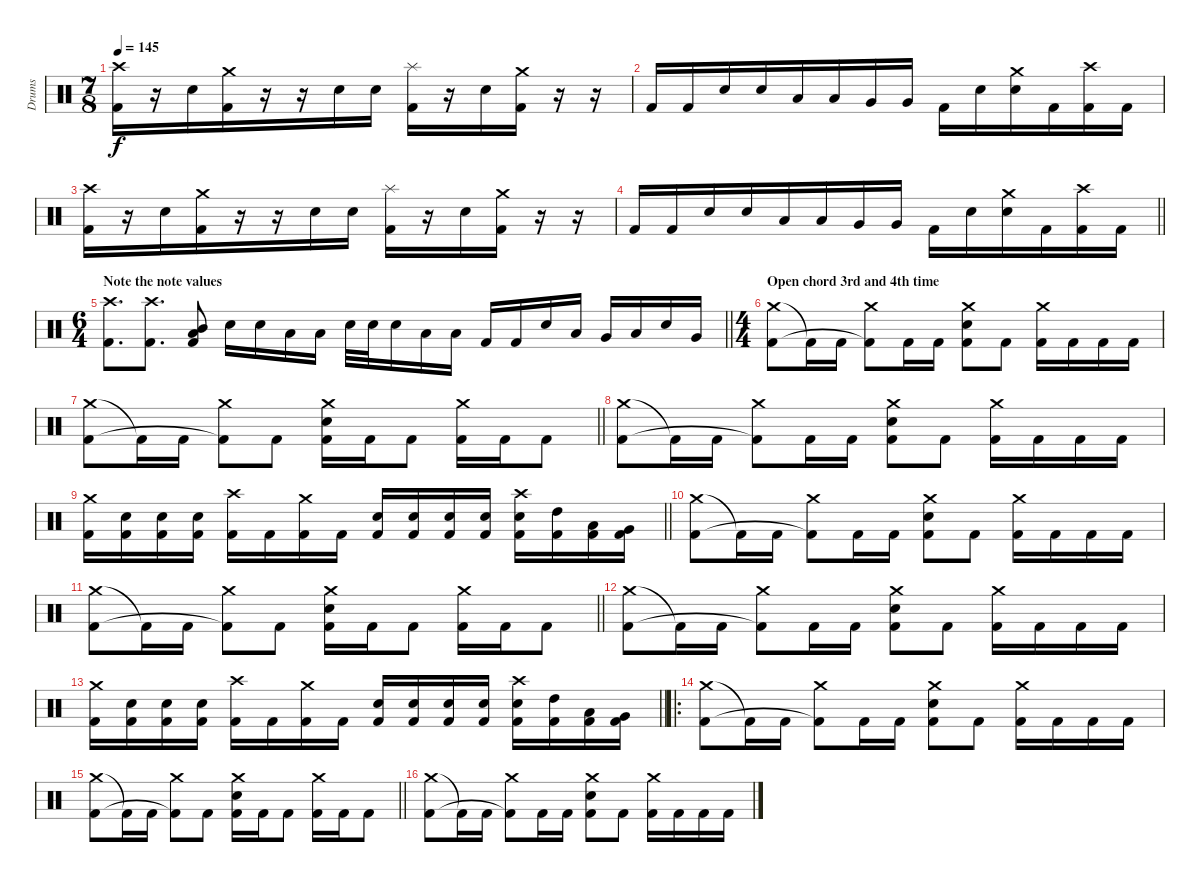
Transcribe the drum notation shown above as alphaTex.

\track ("Drums" "Drums") {mute instrument percussion}
\staff {score}
\articulation defaults
\ts (7 8)
\tempo 145
\clef neutral
\ks c
("Crash high (hit)" "Kick (hit) 2").16{dy f} r.16 "Electric Snare (hit)".16 ("Crash medium (hit)" "Kick (hit) 2").16 r.16 r.16 "Electric Snare (hit)".16 "Electric Snare (hit)".16 ("Splash (hit)" "Kick (hit) 2").16 r.16 "Electric Snare (hit)".16 ("Crash medium (hit)" "Kick (hit) 2").16 r.16 r.16 |
"Kick (hit) 2".16 "Kick (hit) 2".16 "Electric Snare (hit)".16 "Electric Snare (hit)".16 "Low Tom (hit)".16 "Low Tom (hit)".16 "Very Low Tom (hit)".16 "Very Low Tom (hit)".16 "Kick (hit) 2".16 "Electric Snare (hit)".16 ("Crash medium (hit)" "Electric Snare (hit)").16 "Kick (hit) 2".16 ("Crash high (hit)" "Kick (hit) 2").16 "Kick (hit) 2".16 |
("Crash high (hit)" "Kick (hit) 2").16 r.16 "Electric Snare (hit)".16 ("Crash medium (hit)" "Kick (hit) 2").16 r.16 r.16 "Electric Snare (hit)".16 "Electric Snare (hit)".16 ("Splash (hit)" "Kick (hit) 2").16 r.16 "Electric Snare (hit)".16 ("Crash medium (hit)" "Kick (hit) 2").16 r.16 r.16 |
\barLineRight lightlight "Kick (hit) 2".16 "Kick (hit) 2".16 "Electric Snare (hit)".16 "Electric Snare (hit)".16 "Low Tom (hit)".16 "Low Tom (hit)".16 "Very Low Tom (hit)".16 "Very Low Tom (hit)".16 "Kick (hit) 2".16 "Electric Snare (hit)".16
("Crash medium (hit)" "Electric Snare (hit)").16 "Kick (hit) 2".16 ("Crash high (hit)" "Kick (hit) 2").16 "Kick (hit) 2".16 |
\ts (6 4)
\section ("" "Note the note values")
\barLineRight lightlight
("Crash high (hit)" "Kick (hit) 2").8{d} ("Crash high (hit)" "Kick (hit) 2").8{d} ("Mid Tom (hit)" "Low Tom (hit)" "Kick (hit) 2").8 "Electric Snare (hit)".16 "Electric Snare (hit)".16 "Low Tom (hit)".16 "Low Tom (hit)".16 "Electric Snare (hit)".32 "Electric Snare (hit)".32 "Electric Snare (hit)".16 "Low Tom (hit)".16 "Low Tom (hit)".16 "Kick (hit) 2".16 "Kick (hit) 2".16 "Electric Snare (hit)".16 "Low Tom (hit)".16 "Very Low Tom (hit)".16 "Low Tom (hit)".16 "Electric Snare (hit)".16 "Very Low Tom (hit)".16 |
\ts (4 4)
\section ("" "Open chord 3rd and 4th time")
("Crash medium (hit)" "Kick (hit) 2").8 "Kick (hit) 2"{t}.16 "Kick (hit) 2".16 ("Crash medium (hit)" "Kick (hit) 2"{t}).8 "Kick (hit) 2".16 "Kick (hit) 2".16 ("Crash medium (hit)" "Electric Snare (hit)" "Kick (hit) 2").8 "Kick (hit) 2".8 ("Crash medium (hit)" "Kick (hit) 2").16 "Kick (hit) 2".16 "Kick (hit) 2".16 "Kick (hit) 2".16 |
\barLineRight lightlight
("Crash medium (hit)" "Kick (hit) 2").8 "Kick (hit) 2"{t}.16 "Kick (hit) 2".16 ("Crash medium (hit)" "Kick (hit) 2"{t}).8 "Kick (hit) 2".8 ("Crash medium (hit)" "Electric Snare (hit)" "Kick (hit) 2").16 "Kick (hit) 2".16 "Kick (hit) 2".8 ("Crash medium (hit)" "Kick (hit) 2").16 "Kick (hit) 2".16 "Kick (hit) 2".8 |
("Crash medium (hit)" "Kick (hit) 2").8 "Kick (hit) 2"{t}.16 "Kick (hit) 2".16 ("Crash medium (hit)" "Kick (hit) 2"{t}).8 "Kick (hit) 2".16 "Kick (hit) 2".16 ("Crash medium (hit)" "Electric Snare (hit)" "Kick (hit) 2").8 "Kick (hit) 2".8 ("Crash medium (hit)" "Kick (hit) 2").16 "Kick (hit) 2".16 "Kick (hit) 2".16 "Kick (hit) 2".16 |
\barLineRight lightlight
("Crash medium (hit)" "Kick (hit) 2").16 ("Electric Snare (hit)" "Kick (hit) 2").16 ("Electric Snare (hit)" "Kick (hit) 2").16 ("Electric Snare (hit)" "Kick (hit) 2").16 ("Crash high (hit)" "Kick (hit) 2").16 "Kick (hit) 2".16 ("Crash medium (hit)" "Kick (hit) 2").16 "Kick (hit) 2".16 ("Electric Snare (hit)" "Kick (hit) 2").16 ("Electric Snare (hit)" "Kick (hit) 2").16 ("Electric Snare (hit)" "Kick (hit) 2").16 ("Electric Snare (hit)" "Kick (hit) 2").16 ("Crash high (hit)" "Electric Snare (hit)" "Kick (hit) 2").16 ("High Tom (hit)" "Kick (hit) 2").16 ("Low Tom (hit)" "Kick (hit) 2").16 ("Very Low Tom (hit)" "Kick (hit) 2").16 |
("Crash medium (hit)" "Kick (hit) 2").8 "Kick (hit) 2"{t}.16 "Kick (hit) 2".16 ("Crash medium (hit)" "Kick (hit) 2"{t}).8 "Kick (hit) 2".16 "Kick (hit) 2".16 ("Crash medium (hit)" "Electric Snare (hit)" "Kick (hit) 2").8 "Kick (hit) 2".8 ("Crash medium (hit)" "Kick (hit) 2").16 "Kick (hit) 2".16 "Kick (hit) 2".16 "Kick (hit) 2".16 |
\barLineRight lightlight
("Crash medium (hit)" "Kick (hit) 2").8 "Kick (hit) 2"{t}.16 "Kick (hit) 2".16 ("Crash medium (hit)" "Kick (hit) 2"{t}).8 "Kick (hit) 2".8 ("Crash medium (hit)" "Electric Snare (hit)" "Kick (hit) 2").16 "Kick (hit) 2".16 "Kick (hit) 2".8 ("Crash medium (hit)" "Kick (hit) 2").16 "Kick (hit) 2".16 "Kick (hit) 2".8 |
("Crash medium (hit)" "Kick (hit) 2").8 "Kick (hit) 2"{t}.16 "Kick (hit) 2".16 ("Crash medium (hit)" "Kick (hit) 2"{t}).8 "Kick (hit) 2".16 "Kick (hit) 2".16 ("Crash medium (hit)" "Electric Snare (hit)" "Kick (hit) 2").8 "Kick (hit) 2".8 ("Crash medium (hit)" "Kick (hit) 2").16 "Kick (hit) 2".16 "Kick (hit) 2".16 "Kick (hit) 2".16 |
\barLineRight lightlight
("Crash medium (hit)" "Kick (hit) 2").16 ("Electric Snare (hit)" "Kick (hit) 2").16 ("Electric Snare (hit)" "Kick (hit) 2").16 ("Electric Snare (hit)" "Kick (hit) 2").16 ("Crash high (hit)" "Kick (hit) 2").16 "Kick (hit) 2".16 ("Crash medium (hit)" "Kick (hit) 2").16 "Kick (hit) 2".16 ("Electric Snare (hit)" "Kick (hit) 2").16 ("Electric Snare (hit)" "Kick (hit) 2").16 ("Electric Snare (hit)" "Kick (hit) 2").16 ("Electric Snare (hit)" "Kick (hit) 2").16 ("Crash high (hit)" "Electric Snare (hit)" "Kick (hit) 2").16 ("High Tom (hit)" "Kick (hit) 2").16 ("Low Tom (hit)" "Kick (hit) 2").16 ("Very Low Tom (hit)" "Kick (hit) 2").16 |
\ro
("Crash medium (hit)" "Kick (hit) 2").8 "Kick (hit) 2"{t}.16 "Kick (hit) 2".16 ("Crash medium (hit)" "Kick (hit) 2"{t}).8 "Kick (hit) 2".16 "Kick (hit) 2".16 ("Crash medium (hit)" "Electric Snare (hit)" "Kick (hit) 2").8 "Kick (hit) 2".8 ("Crash medium (hit)" "Kick (hit) 2").16 "Kick (hit) 2".16 "Kick (hit) 2".16 "Kick (hit) 2".16 |
\barLineRight lightlight
("Crash medium (hit)" "Kick (hit) 2").8 "Kick (hit) 2"{t}.16 "Kick (hit) 2".16 ("Crash medium (hit)" "Kick (hit) 2"{t}).8 "Kick (hit) 2".8 ("Crash medium (hit)" "Electric Snare (hit)" "Kick (hit) 2").16 "Kick (hit) 2".16 "Kick (hit) 2".8 ("Crash medium (hit)" "Kick (hit) 2").16 "Kick (hit) 2".16 "Kick (hit) 2".8 |
("Crash medium (hit)" "Kick (hit) 2").8 "Kick (hit) 2"{t}.16 "Kick (hit) 2".16 ("Crash medium (hit)" "Kick (hit) 2"{t}).8 "Kick (hit) 2".16 "Kick (hit) 2".16 ("Crash medium (hit)" "Electric Snare (hit)" "Kick (hit) 2").8 "Kick (hit) 2".8 ("Crash medium (hit)" "Kick (hit) 2").16 "Kick (hit) 2".16 "Kick (hit) 2".16 "Kick (hit) 2".16
